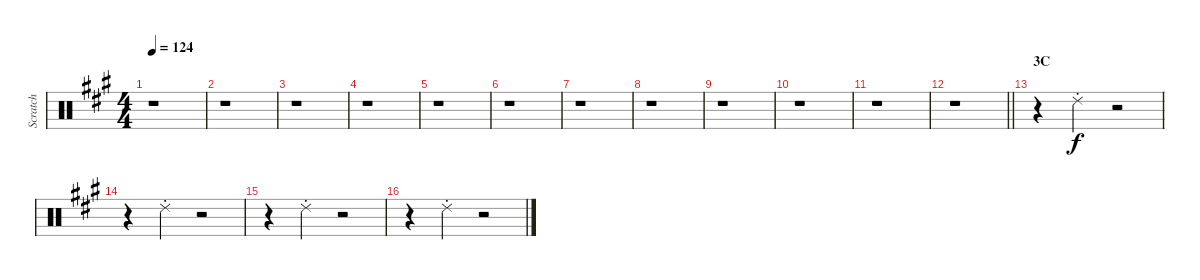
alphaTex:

\track ("Scratch" "Scratch") {instrument percussion}
\staff {score}
\articulation defaults
\ts (4 4)
\tempo 124
\clef neutral
\ks a
r.1{dy f} |
r.1 |
r.1 |
r.1 |
r.1 |
r.1 |
r.1 |
r.1 |
r.1 |
r.1 |
r.1 |
\barLineRight lightlight
r.1 |
\section ("" "3C")
r.4 "Ride (choke) 2".4 r.2 |
r.4 "Ride (choke) 2".4 r.2 |
r.4 "Ride (choke) 2".4 r.2 |
r.4 "Ride (choke) 2".4 r.2
